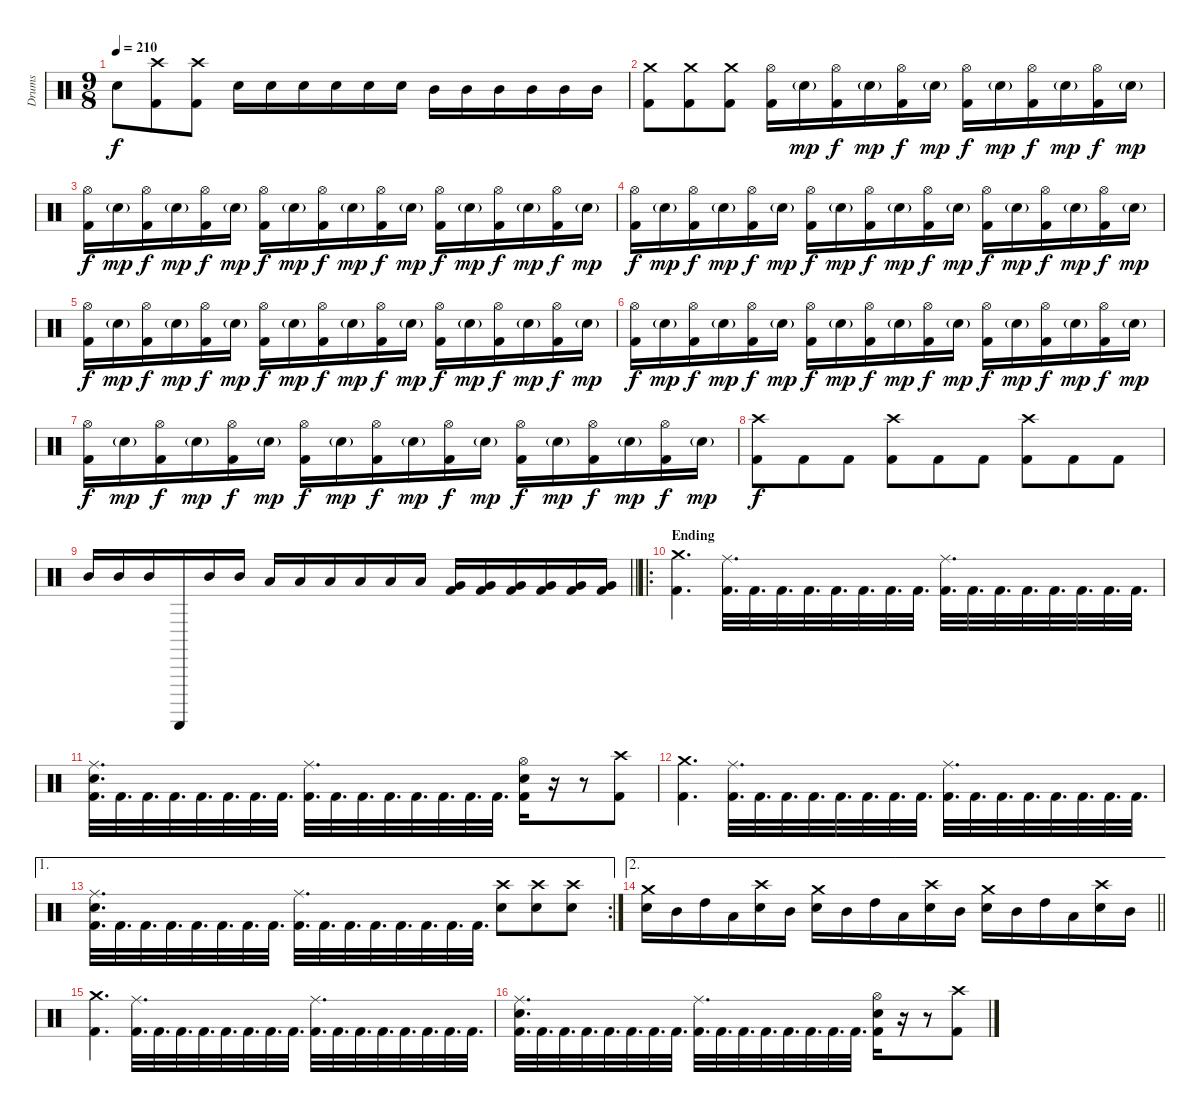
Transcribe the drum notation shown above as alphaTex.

\track ("Drums" "Drums") {instrument percussion}
\staff {score}
\articulation defaults
\ts (9 8)
\tempo 210
\clef neutral
\ks c "Electric Snare (hit)".8{dy f}
("Crash high (hit)" "Kick (hit) 2").8 ("Crash high (hit)" "Kick (hit) 2").8 "Electric Snare (hit)".16 "Electric Snare (hit)".16 "Electric Snare (hit)".16 "Electric Snare (hit)".16 "Electric Snare (hit)".16 "Electric Snare (hit)".16 "Mid Tom (hit)".16 "Mid Tom (hit)".16 "Mid Tom (hit)".16 "Mid Tom (hit)".16 "Mid Tom (hit)".16 "Mid Tom (hit)".16 |
("Crash medium (hit)" "Kick (hit) 2").8 ("Crash medium (hit)" "Kick (hit) 2").8 ("Crash medium (hit)" "Kick (hit) 2").8 ("Hi-Hat (open)" "Kick (hit) 2").16 "Electric Snare (hit)"{g}.16{dy mp} ("Hi-Hat (open)" "Kick (hit) 2").16{dy f} "Electric Snare (hit)"{g}.16{dy mp} ("Hi-Hat (open)" "Kick (hit) 2").16{dy f} "Electric Snare (hit)"{g}.16{dy mp} ("Hi-Hat (open)" "Kick (hit) 2").16{dy f} "Electric Snare (hit)"{g}.16{dy mp} ("Hi-Hat (open)" "Kick (hit) 2").16{dy f} "Electric Snare (hit)"{g}.16{dy mp} ("Hi-Hat (open)" "Kick (hit) 2").16{dy f} "Electric Snare (hit)"{g}.16{dy mp} |
("Hi-Hat (open)" "Kick (hit) 2").16{dy f} "Electric Snare (hit)"{g}.16{dy mp} ("Hi-Hat (open)" "Kick (hit) 2").16{dy f} "Electric Snare (hit)"{g}.16{dy mp} ("Hi-Hat (open)" "Kick (hit) 2").16{dy f} "Electric Snare (hit)"{g}.16{dy mp} ("Hi-Hat (open)" "Kick (hit) 2").16{dy f} "Electric Snare (hit)"{g}.16{dy mp} ("Hi-Hat (open)" "Kick (hit) 2").16{dy f} "Electric Snare (hit)"{g}.16{dy mp} ("Hi-Hat (open)" "Kick (hit) 2").16{dy f} "Electric Snare (hit)"{g}.16{dy mp} ("Hi-Hat (open)" "Kick (hit) 2").16{dy f} "Electric Snare (hit)"{g}.16{dy mp} ("Hi-Hat (open)" "Kick (hit) 2").16{dy f} "Electric Snare (hit)"{g}.16{dy mp} ("Hi-Hat (open)" "Kick (hit) 2").16{dy f} "Electric Snare (hit)"{g}.16{dy mp} |
("Hi-Hat (open)" "Kick (hit) 2").16{dy f} "Electric Snare (hit)"{g}.16{dy mp} ("Hi-Hat (open)" "Kick (hit) 2").16{dy f} "Electric Snare (hit)"{g}.16{dy mp} ("Hi-Hat (open)" "Kick (hit) 2").16{dy f} "Electric Snare (hit)"{g}.16{dy mp} ("Hi-Hat (open)" "Kick (hit) 2").16{dy f} "Electric Snare (hit)"{g}.16{dy mp} ("Hi-Hat (open)" "Kick (hit) 2").16{dy f} "Electric Snare (hit)"{g}.16{dy mp} ("Hi-Hat (open)" "Kick (hit) 2").16{dy f} "Electric Snare (hit)"{g}.16{dy mp} ("Hi-Hat (open)" "Kick (hit) 2").16{dy f} "Electric Snare (hit)"{g}.16{dy mp} ("Hi-Hat (open)" "Kick (hit) 2").16{dy f} "Electric Snare (hit)"{g}.16{dy mp} ("Hi-Hat (open)" "Kick (hit) 2").16{dy f} "Electric Snare (hit)"{g}.16{dy mp} |
("Hi-Hat (open)" "Kick (hit) 2").16{dy f} "Electric Snare (hit)"{g}.16{dy mp} ("Hi-Hat (open)" "Kick (hit) 2").16{dy f} "Electric Snare (hit)"{g}.16{dy mp} ("Hi-Hat (open)" "Kick (hit) 2").16{dy f} "Electric Snare (hit)"{g}.16{dy mp} ("Hi-Hat (open)" "Kick (hit) 2").16{dy f} "Electric Snare (hit)"{g}.16{dy mp} ("Hi-Hat (open)" "Kick (hit) 2").16{dy f} "Electric Snare (hit)"{g}.16{dy mp} ("Hi-Hat (open)" "Kick (hit) 2").16{dy f} "Electric Snare (hit)"{g}.16{dy mp} ("Hi-Hat (open)" "Kick (hit) 2").16{dy f} "Electric Snare (hit)"{g}.16{dy mp} ("Hi-Hat (open)" "Kick (hit) 2").16{dy f} "Electric Snare (hit)"{g}.16{dy mp} ("Hi-Hat (open)" "Kick (hit) 2").16{dy f} "Electric Snare (hit)"{g}.16{dy mp} |
("Hi-Hat (open)" "Kick (hit) 2").16{dy f} "Electric Snare (hit)"{g}.16{dy mp} ("Hi-Hat (open)" "Kick (hit) 2").16{dy f} "Electric Snare (hit)"{g}.16{dy mp} ("Hi-Hat (open)" "Kick (hit) 2").16{dy f} "Electric Snare (hit)"{g}.16{dy mp} ("Hi-Hat (open)" "Kick (hit) 2").16{dy f} "Electric Snare (hit)"{g}.16{dy mp} ("Hi-Hat (open)" "Kick (hit) 2").16{dy f} "Electric Snare (hit)"{g}.16{dy mp} ("Hi-Hat (open)" "Kick (hit) 2").16{dy f} "Electric Snare (hit)"{g}.16{dy mp} ("Hi-Hat (open)" "Kick (hit) 2").16{dy f} "Electric Snare (hit)"{g}.16{dy mp} ("Hi-Hat (open)" "Kick (hit) 2").16{dy f} "Electric Snare (hit)"{g}.16{dy mp} ("Hi-Hat (open)" "Kick (hit) 2").16{dy f} "Electric Snare (hit)"{g}.16{dy mp} |
("Hi-Hat (open)" "Kick (hit) 2").16{dy f} "Electric Snare (hit)"{g}.16{dy mp} ("Hi-Hat (open)" "Kick (hit) 2").16{dy f} "Electric Snare (hit)"{g}.16{dy mp} ("Hi-Hat (open)" "Kick (hit) 2").16{dy f} "Electric Snare (hit)"{g}.16{dy mp} ("Hi-Hat (open)" "Kick (hit) 2").16{dy f} "Electric Snare (hit)"{g}.16{dy mp} ("Hi-Hat (open)" "Kick (hit) 2").16{dy f} "Electric Snare (hit)"{g}.16{dy mp} ("Hi-Hat (open)" "Kick (hit) 2").16{dy f} "Electric Snare (hit)"{g}.16{dy mp} ("Hi-Hat (open)" "Kick (hit) 2").16{dy f} "Electric Snare (hit)"{g}.16{dy mp} ("Hi-Hat (open)" "Kick (hit) 2").16{dy f} "Electric Snare (hit)"{g}.16{dy mp} ("Hi-Hat (open)" "Kick (hit) 2").16{dy f} "Electric Snare (hit)"{g}.16{dy mp} |
("Crash high (hit)" "Kick (hit) 2").8{dy f} "Kick (hit) 2".8 "Kick (hit) 2".8 ("Crash high (hit)" "Kick (hit) 2").8 "Kick (hit) 2".8 "Kick (hit) 2".8 ("Crash high (hit)" "Kick (hit) 2").8 "Kick (hit) 2".8 "Kick (hit) 2".8 |
\barLineRight lightlight "Mid Tom (hit)".16 "Mid Tom (hit)".16 "Mid Tom (hit)".16 "Guiro (scrap-return)".16 "Mid Tom (hit)".16 "Mid Tom (hit)".16 "Low Tom (hit)".16 "Low Tom (hit)".16 "Low Tom (hit)".16 "Low Tom (hit)".16 "Low Tom (hit)".16 "Low Tom (hit)".16
("Very Low Tom (hit)" "Kick (hit) 2").16 ("Very Low Tom (hit)" "Kick (hit) 2").16 ("Very Low Tom (hit)" "Kick (hit) 2").16 ("Very Low Tom (hit)" "Kick (hit) 2").16 ("Very Low Tom (hit)" "Kick (hit) 2").16 ("Very Low Tom (hit)" "Kick (hit) 2").16 |
\ro
\section ("" "Ending")
("Crash medium (hit)" "Kick (hit) 2").4{d} ("Ride (middle)" "Kick (hit) 2").32{d} "Kick (hit) 2".32{d} "Kick (hit) 2".32{d} "Kick (hit) 2".32{d} "Kick (hit) 2".32{d} "Kick (hit) 2".32{d} "Kick (hit) 2".32{d} "Kick (hit) 2".32{d} ("Ride (middle)" "Kick (hit) 2").32{d} "Kick (hit) 2".32{d} "Kick (hit) 2".32{d} "Kick (hit) 2".32{d} "Kick (hit) 2".32{d} "Kick (hit) 2".32{d} "Kick (hit) 2".32{d} "Kick (hit) 2".32{d} |
("Ride (middle)" "Electric Snare (hit)" "Kick (hit) 2").32{d} "Kick (hit) 2".32{d} "Kick (hit) 2".32{d} "Kick (hit) 2".32{d} "Kick (hit) 2".32{d} "Kick (hit) 2".32{d} "Kick (hit) 2".32{d} "Kick (hit) 2".32{d} ("Ride (middle)" "Kick (hit) 2").32{d} "Kick (hit) 2".32{d} "Kick (hit) 2".32{d} "Kick (hit) 2".32{d} "Kick (hit) 2".32{d} "Kick (hit) 2".32{d} "Kick (hit) 2".32{d} "Kick (hit) 2".32{d} ("Hi-Hat (open)" "Electric Snare (hit)" "Kick (hit) 2").16 r.16 r.8 ("Crash high (hit)" "Kick (hit) 2").8 |
("Crash medium (hit)" "Kick (hit) 2").4{d} ("Ride (middle)" "Kick (hit) 2").32{d} "Kick (hit) 2".32{d} "Kick (hit) 2".32{d} "Kick (hit) 2".32{d} "Kick (hit) 2".32{d} "Kick (hit) 2".32{d} "Kick (hit) 2".32{d} "Kick (hit) 2".32{d} ("Ride (middle)" "Kick (hit) 2").32{d} "Kick (hit) 2".32{d} "Kick (hit) 2".32{d} "Kick (hit) 2".32{d} "Kick (hit) 2".32{d} "Kick (hit) 2".32{d} "Kick (hit) 2".32{d} "Kick (hit) 2".32{d} |
\ae 1
\rc 2
("Ride (middle)" "Electric Snare (hit)" "Kick (hit) 2").32{d} "Kick (hit) 2".32{d} "Kick (hit) 2".32{d} "Kick (hit) 2".32{d} "Kick (hit) 2".32{d} "Kick (hit) 2".32{d} "Kick (hit) 2".32{d} "Kick (hit) 2".32{d} ("Ride (middle)" "Kick (hit) 2").32{d} "Kick (hit) 2".32{d} "Kick (hit) 2".32{d} "Kick (hit) 2".32{d} "Kick (hit) 2".32{d} "Kick (hit) 2".32{d} "Kick (hit) 2".32{d} "Kick (hit) 2".32{d} ("Crash high (hit)" "Electric Snare (hit)").8 ("Crash high (hit)" "Electric Snare (hit)").8 ("Crash high (hit)" "Electric Snare (hit)").8 |
\ae 2
\barLineRight lightlight
("Crash medium (hit)" "Electric Snare (hit)").16 "Mid Tom (hit)".16 "High Tom (hit)".16 "Low Tom (hit)".16 ("Crash high (hit)" "Electric Snare (hit)").16 "Mid Tom (hit)".16 ("Crash medium (hit)" "Electric Snare (hit)").16 "Mid Tom (hit)".16 "High Tom (hit)".16 "Low Tom (hit)".16 ("Crash high (hit)" "Electric Snare (hit)").16 "Mid Tom (hit)".16 ("Crash medium (hit)" "Electric Snare (hit)").16 "Mid Tom (hit)".16 "High Tom (hit)".16 "Low Tom (hit)".16 ("Crash high (hit)" "Electric Snare (hit)").16 "Mid Tom (hit)".16 |
("Crash medium (hit)" "Kick (hit) 2").4{d} ("Ride (middle)" "Kick (hit) 2").32{d} "Kick (hit) 2".32{d} "Kick (hit) 2".32{d} "Kick (hit) 2".32{d} "Kick (hit) 2".32{d} "Kick (hit) 2".32{d} "Kick (hit) 2".32{d} "Kick (hit) 2".32{d} ("Ride (middle)" "Kick (hit) 2").32{d} "Kick (hit) 2".32{d} "Kick (hit) 2".32{d} "Kick (hit) 2".32{d} "Kick (hit) 2".32{d} "Kick (hit) 2".32{d} "Kick (hit) 2".32{d} "Kick (hit) 2".32{d} |
("Ride (middle)" "Electric Snare (hit)" "Kick (hit) 2").32{d} "Kick (hit) 2".32{d} "Kick (hit) 2".32{d} "Kick (hit) 2".32{d} "Kick (hit) 2".32{d} "Kick (hit) 2".32{d} "Kick (hit) 2".32{d} "Kick (hit) 2".32{d} ("Ride (middle)" "Kick (hit) 2").32{d} "Kick (hit) 2".32{d} "Kick (hit) 2".32{d} "Kick (hit) 2".32{d} "Kick (hit) 2".32{d} "Kick (hit) 2".32{d} "Kick (hit) 2".32{d} "Kick (hit) 2".32{d} ("Hi-Hat (open)" "Electric Snare (hit)" "Kick (hit) 2").16 r.16 r.8 ("Crash high (hit)" "Kick (hit) 2").8
